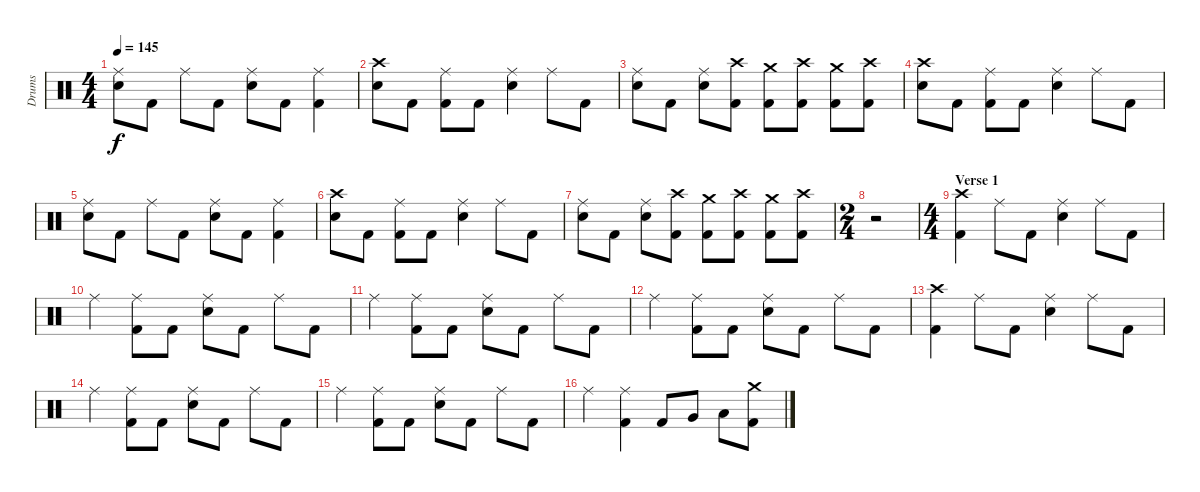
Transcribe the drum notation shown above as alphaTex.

\track ("Drums" "Drums") {instrument percussion}
\staff {score}
\articulation defaults
\ts (4 4)
\tempo 145
\clef neutral
\ks c
("Ride (middle)" "Snare (hit) 2").8{dy f} "Kick (hit) 2".8 "Ride (middle)".8 "Kick (hit) 2".8 ("Ride (middle)" "Snare (hit) 2").8 "Kick (hit) 2".8 ("Ride (middle)" "Kick (hit) 2").4 |
("Crash high (hit)" "Snare (hit) 2").8 "Kick (hit) 2".8 ("Ride (middle)" "Kick (hit) 2").8 "Kick (hit) 2".8 ("Ride (middle)" "Snare (hit) 2").4 "Ride (middle)".8 "Kick (hit) 2".8 |
("Ride (middle)" "Snare (hit) 2").8 "Kick (hit) 2".8 ("Ride (middle)" "Snare (hit) 2").8 ("Crash high (hit)" "Kick (hit) 2").8 ("Crash medium (hit)" "Kick (hit) 2").8 ("Crash high (hit)" "Kick (hit) 2").8 ("Crash medium (hit)" "Kick (hit) 2").8 ("Crash high (hit)" "Kick (hit) 2").8 |
("Crash high (hit)" "Snare (hit) 2").8 "Kick (hit) 2".8 ("Ride (middle)" "Kick (hit) 2").8 "Kick (hit) 2".8 ("Ride (middle)" "Snare (hit) 2").4 "Ride (middle)".8 "Kick (hit) 2".8 |
("Ride (middle)" "Snare (hit) 2").8 "Kick (hit) 2".8 "Ride (middle)".8 "Kick (hit) 2".8 ("Ride (middle)" "Snare (hit) 2").8 "Kick (hit) 2".8 ("Ride (middle)" "Kick (hit) 2").4 |
("Crash high (hit)" "Snare (hit) 2").8 "Kick (hit) 2".8 ("Ride (middle)" "Kick (hit) 2").8 "Kick (hit) 2".8 ("Ride (middle)" "Snare (hit) 2").4 "Ride (middle)".8 "Kick (hit) 2".8 |
("Ride (middle)" "Snare (hit) 2").8 "Kick (hit) 2".8 ("Ride (middle)" "Snare (hit) 2").8 ("Crash high (hit)" "Kick (hit) 2").8 ("Crash medium (hit)" "Kick (hit) 2").8 ("Crash high (hit)" "Kick (hit) 2").8 ("Crash medium (hit)" "Kick (hit) 2").8 ("Crash high (hit)" "Kick (hit) 2").8 |
\ts (2 4)
r.2 |
\ts (4 4)
\section ("" "Verse 1")
("Crash high (hit)" "Kick (hit) 2").4 "Ride (middle)".8 "Kick (hit) 2".8 ("Ride (middle)" "Snare (hit) 2").4 "Ride (middle)".8 "Kick (hit) 2".8 |
"Ride (middle)".4 ("Ride (middle)" "Kick (hit) 2").8 "Kick (hit) 2".8 ("Ride (middle)" "Snare (hit) 2").8 "Kick (hit) 2".8 "Ride (middle)".8 "Kick (hit) 2".8 |
"Ride (middle)".4 ("Ride (middle)" "Kick (hit) 2").8 "Kick (hit) 2".8 ("Ride (middle)" "Snare (hit) 2").8 "Kick (hit) 2".8 "Ride (middle)".8 "Kick (hit) 2".8 |
"Ride (middle)".4 ("Ride (middle)" "Kick (hit) 2").8 "Kick (hit) 2".8 ("Ride (middle)" "Snare (hit) 2").8 "Kick (hit) 2".8 "Ride (middle)".8 "Kick (hit) 2".8 |
("Crash high (hit)" "Kick (hit) 2").4 "Ride (middle)".8 "Kick (hit) 2".8 ("Ride (middle)" "Snare (hit) 2").4 "Ride (middle)".8 "Kick (hit) 2".8 |
"Ride (middle)".4 ("Ride (middle)" "Kick (hit) 2").8 "Kick (hit) 2".8 ("Ride (middle)" "Snare (hit) 2").8 "Kick (hit) 2".8 "Ride (middle)".8 "Kick (hit) 2".8 |
"Ride (middle)".4 ("Ride (middle)" "Kick (hit) 2").8 "Kick (hit) 2".8 ("Ride (middle)" "Snare (hit) 2").8 "Kick (hit) 2".8 "Ride (middle)".8 "Kick (hit) 2".8 |
"Ride (middle)".4 ("Ride (middle)" "Kick (hit) 2").4 "Kick (hit) 2".8 "Very Low Tom (hit)".8 "Low Floor Tom (hit)".8 ("Crash medium (hit)" "Kick (hit) 2").8
